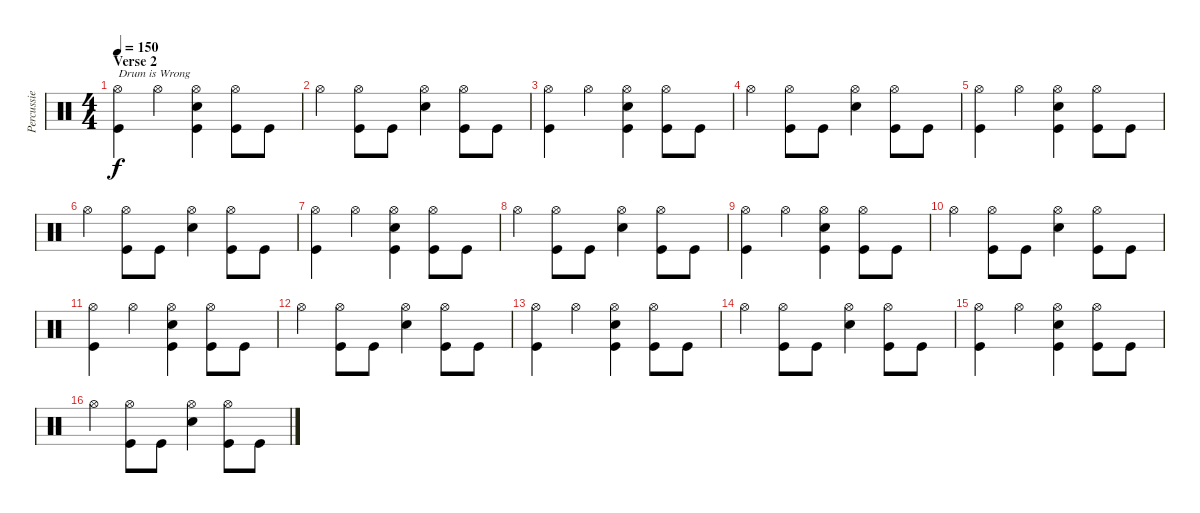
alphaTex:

\track ("Percussie" "Percussie") {instrument percussion}
\staff {score}
\articulation defaults
\ts (4 4)
\section ("" "Verse 2")
\tempo 150
\clef neutral
\ks c
("Hi-Hat (open)" "Kick (hit)").4{txt "Drum is Wrong" dy f} "Hi-Hat (open)".4 ("Hi-Hat (open)" "Snare (hit) 2" "Kick (hit)").4 ("Hi-Hat (open)" "Kick (hit)").8 "Kick (hit)".8 |
"Hi-Hat (open)".4 ("Hi-Hat (open)" "Kick (hit)").8 "Kick (hit)".8 ("Hi-Hat (open)" "Snare (hit) 2").4 ("Hi-Hat (open)" "Kick (hit)").8 "Kick (hit)".8 |
("Hi-Hat (open)" "Kick (hit)").4 "Hi-Hat (open)".4 ("Hi-Hat (open)" "Snare (hit) 2" "Kick (hit)").4 ("Hi-Hat (open)" "Kick (hit)").8 "Kick (hit)".8 |
"Hi-Hat (open)".4 ("Hi-Hat (open)" "Kick (hit)").8 "Kick (hit)".8 ("Hi-Hat (open)" "Snare (hit) 2").4 ("Hi-Hat (open)" "Kick (hit)").8 "Kick (hit)".8 |
("Hi-Hat (open)" "Kick (hit)").4 "Hi-Hat (open)".4 ("Hi-Hat (open)" "Snare (hit) 2" "Kick (hit)").4 ("Hi-Hat (open)" "Kick (hit)").8 "Kick (hit)".8 |
"Hi-Hat (open)".4 ("Hi-Hat (open)" "Kick (hit)").8 "Kick (hit)".8 ("Hi-Hat (open)" "Snare (hit) 2").4 ("Hi-Hat (open)" "Kick (hit)").8 "Kick (hit)".8 |
("Hi-Hat (open)" "Kick (hit)").4 "Hi-Hat (open)".4 ("Hi-Hat (open)" "Snare (hit) 2" "Kick (hit)").4 ("Hi-Hat (open)" "Kick (hit)").8 "Kick (hit)".8 |
"Hi-Hat (open)".4 ("Hi-Hat (open)" "Kick (hit)").8 "Kick (hit)".8 ("Hi-Hat (open)" "Snare (hit) 2").4 ("Hi-Hat (open)" "Kick (hit)").8 "Kick (hit)".8 |
("Hi-Hat (open)" "Kick (hit)").4 "Hi-Hat (open)".4 ("Hi-Hat (open)" "Snare (hit) 2" "Kick (hit)").4 ("Hi-Hat (open)" "Kick (hit)").8 "Kick (hit)".8 |
"Hi-Hat (open)".4 ("Hi-Hat (open)" "Kick (hit)").8 "Kick (hit)".8 ("Hi-Hat (open)" "Snare (hit) 2").4 ("Hi-Hat (open)" "Kick (hit)").8 "Kick (hit)".8 |
("Hi-Hat (open)" "Kick (hit)").4 "Hi-Hat (open)".4 ("Hi-Hat (open)" "Snare (hit) 2" "Kick (hit)").4 ("Hi-Hat (open)" "Kick (hit)").8 "Kick (hit)".8 |
"Hi-Hat (open)".4 ("Hi-Hat (open)" "Kick (hit)").8 "Kick (hit)".8 ("Hi-Hat (open)" "Snare (hit) 2").4 ("Hi-Hat (open)" "Kick (hit)").8 "Kick (hit)".8 |
("Hi-Hat (open)" "Kick (hit)").4 "Hi-Hat (open)".4 ("Hi-Hat (open)" "Snare (hit) 2" "Kick (hit)").4 ("Hi-Hat (open)" "Kick (hit)").8 "Kick (hit)".8 |
"Hi-Hat (open)".4 ("Hi-Hat (open)" "Kick (hit)").8 "Kick (hit)".8 ("Hi-Hat (open)" "Snare (hit) 2").4 ("Hi-Hat (open)" "Kick (hit)").8 "Kick (hit)".8 |
("Hi-Hat (open)" "Kick (hit)").4 "Hi-Hat (open)".4 ("Hi-Hat (open)" "Snare (hit) 2" "Kick (hit)").4 ("Hi-Hat (open)" "Kick (hit)").8 "Kick (hit)".8 |
"Hi-Hat (open)".4 ("Hi-Hat (open)" "Kick (hit)").8 "Kick (hit)".8 ("Hi-Hat (open)" "Snare (hit) 2").4 ("Hi-Hat (open)" "Kick (hit)").8 "Kick (hit)".8
